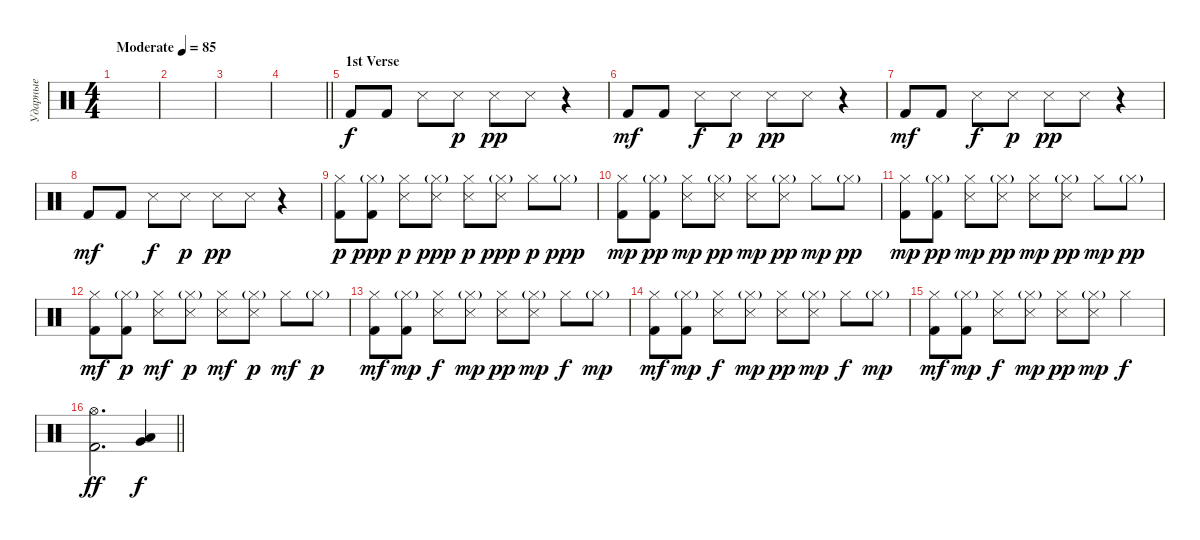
\track ("Ударные" "Ударные") {instrument percussion}
\staff {score}
\articulation defaults
\ts (4 4)
\tempo (85 "Moderate")
\clef neutral
\ks c
|
|
|
\barLineRight lightlight
|
\section ("" "1st Verse")
"Kick (hit) 2".8 "Kick (hit) 2".8 "Snare (side stick) 3".8{dy f} "Snare (side stick) 3".8{dy p} "Snare (side stick) 3".8{dy pp} "Snare (side stick) 3".8 r.4 |
"Kick (hit) 2".8{dy mf} "Kick (hit) 2".8 "Snare (side stick) 3".8{dy f} "Snare (side stick) 3".8{dy p} "Snare (side stick) 3".8{dy pp} "Snare (side stick) 3".8 r.4 |
"Kick (hit) 2".8{dy mf} "Kick (hit) 2".8 "Snare (side stick) 3".8{dy f} "Snare (side stick) 3".8{dy p} "Snare (side stick) 3".8{dy pp} "Snare (side stick) 3".8 r.4 |
"Kick (hit) 2".8{dy mf} "Kick (hit) 2".8 "Snare (side stick) 3".8{dy f} "Snare (side stick) 3".8{dy p} "Snare (side stick) 3".8{dy pp} "Snare (side stick) 3".8 r.4 |
("Kick (hit) 2" "Hi-Hat (closed)").8{dy p} ("Kick (hit) 2" "Hi-Hat (closed)"{g}).8{dy ppp} ("Snare (side stick) 3" "Hi-Hat (closed)").8{dy p} ("Snare (side stick) 3" "Hi-Hat (closed)"{g}).8{dy ppp} ("Snare (side stick) 3" "Hi-Hat (closed)").8{dy p} ("Snare (side stick) 3" "Hi-Hat (closed)"{g}).8{dy ppp} "Hi-Hat (closed)".8{dy p} "Hi-Hat (closed)"{g}.8{dy ppp} |
("Kick (hit) 2" "Hi-Hat (closed)").8{dy mp} ("Kick (hit) 2" "Hi-Hat (closed)"{g}).8{dy pp} ("Snare (side stick) 3" "Hi-Hat (closed)").8{dy mp} ("Snare (side stick) 3" "Hi-Hat (closed)"{g}).8{dy pp} ("Snare (side stick) 3" "Hi-Hat (closed)").8{dy mp} ("Snare (side stick) 3" "Hi-Hat (closed)"{g}).8{dy pp} "Hi-Hat (closed)".8{dy mp} "Hi-Hat (closed)"{g}.8{dy pp} |
("Kick (hit) 2" "Hi-Hat (closed)").8{dy mp} ("Kick (hit) 2" "Hi-Hat (closed)"{g}).8{dy pp} ("Snare (side stick) 3" "Hi-Hat (closed)").8{dy mp} ("Snare (side stick) 3" "Hi-Hat (closed)"{g}).8{dy pp} ("Snare (side stick) 3" "Hi-Hat (closed)").8{dy mp} ("Snare (side stick) 3" "Hi-Hat (closed)"{g}).8{dy pp} "Hi-Hat (closed)".8{dy mp} "Hi-Hat (closed)"{g}.8{dy pp} |
("Kick (hit) 2" "Hi-Hat (closed)").8{dy mf} ("Kick (hit) 2" "Hi-Hat (closed)"{g}).8{dy p} ("Snare (side stick) 3" "Hi-Hat (closed)").8{dy mf} ("Snare (side stick) 3" "Hi-Hat (closed)"{g}).8{dy p} ("Snare (side stick) 3" "Hi-Hat (closed)").8{dy mf} ("Snare (side stick) 3" "Hi-Hat (closed)"{g}).8{dy p} "Hi-Hat (closed)".8{dy mf} "Hi-Hat (closed)"{g}.8{dy p} |
("Kick (hit) 2" "Hi-Hat (closed)").8{dy mf} ("Kick (hit) 2" "Hi-Hat (closed)"{g}).8{dy mp} ("Snare (side stick) 3" "Hi-Hat (closed)").8{dy f} ("Snare (side stick) 3" "Hi-Hat (closed)"{g}).8{dy mp} ("Snare (side stick) 3" "Hi-Hat (closed)").8{dy pp} ("Snare (side stick) 3" "Hi-Hat (closed)"{g}).8{dy mp} "Hi-Hat (closed)".8{dy f} "Hi-Hat (closed)"{g}.8{dy mp} |
("Kick (hit) 2" "Hi-Hat (closed)").8{dy mf} ("Kick (hit) 2" "Hi-Hat (closed)"{g}).8{dy mp} ("Snare (side stick) 3" "Hi-Hat (closed)").8{dy f} ("Snare (side stick) 3" "Hi-Hat (closed)"{g}).8{dy mp} ("Snare (side stick) 3" "Hi-Hat (closed)").8{dy pp} ("Snare (side stick) 3" "Hi-Hat (closed)"{g}).8{dy mp} "Hi-Hat (closed)".8{dy f} "Hi-Hat (closed)"{g}.8{dy mp} |
("Kick (hit) 2" "Hi-Hat (closed)").8{dy mf} ("Kick (hit) 2" "Hi-Hat (closed)"{g}).8{dy mp} ("Snare (side stick) 3" "Hi-Hat (closed)").8{dy f} ("Snare (side stick) 3" "Hi-Hat (closed)"{g}).8{dy mp} ("Snare (side stick) 3" "Hi-Hat (closed)").8{dy pp} ("Snare (side stick) 3" "Hi-Hat (closed)"{g}).8{dy mp} "Hi-Hat (closed)".4{dy f} |
\barLineRight lightlight
("Kick (hit) 2" "Hi-Hat (open)").2{d dy ff} ("Very Low Tom (hit)" "Low Tom (hit)").4{dy f}
